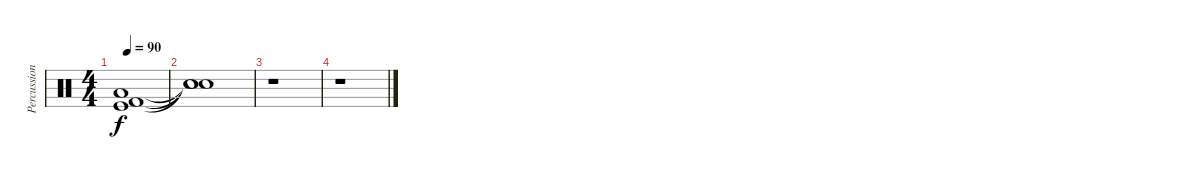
\track ("Percussion" "Percussion") {instrument percussion}
\staff {score}
\articulation defaults
\ts (4 4)
\tempo 90
\clef neutral
\ks c
("Low Floor Tom (hit)" "Kick (hit) 2" "Kick (hit)").1{dy f} |
("Snare (hit)"{t} "Snare (hit)"{t} "Snare (hit)"{t}).1 |
r.1 |
r.1
